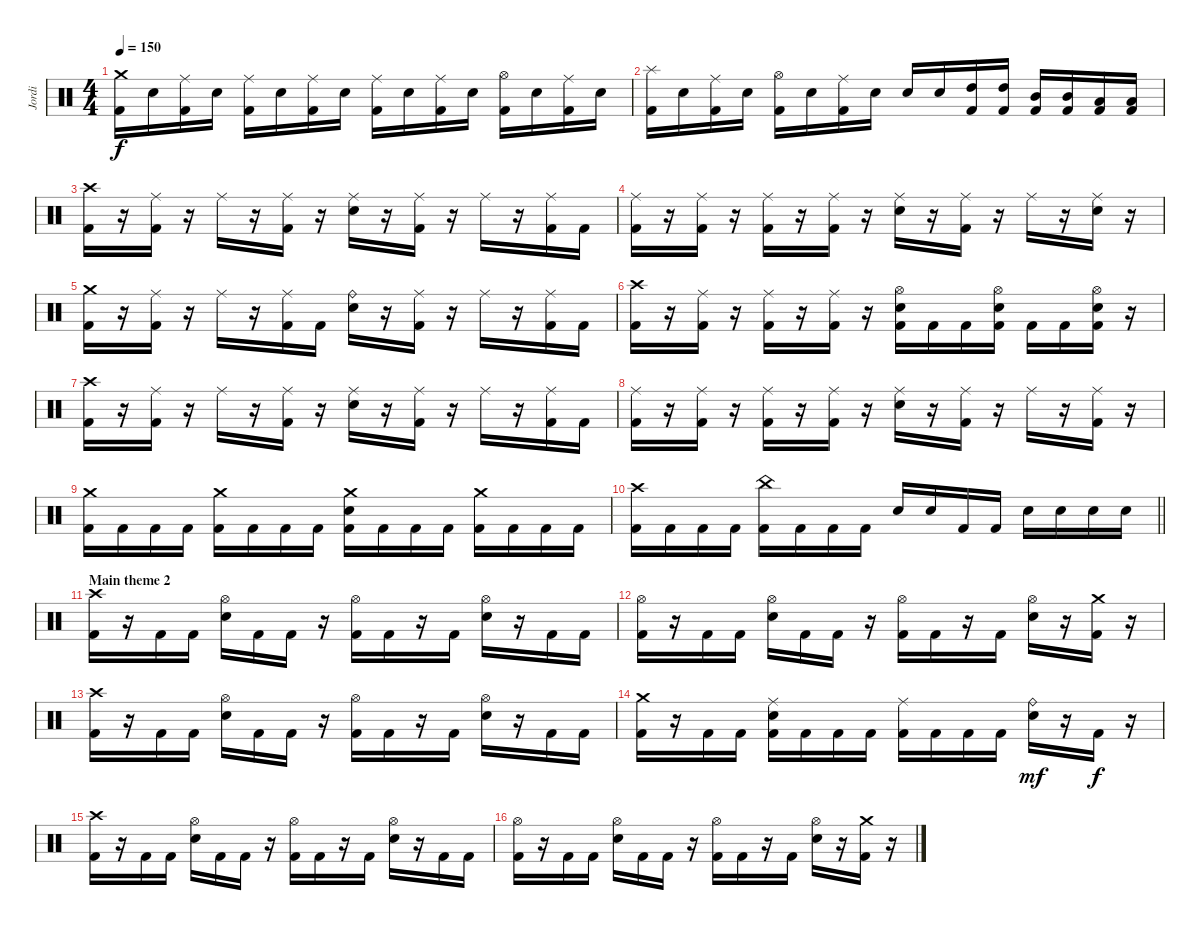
\track ("Jordi" "Jordi") {instrument percussion}
\staff {score}
\articulation defaults
\ts (4 4)
\tempo 150
\clef neutral
\ks c
("Crash medium (hit)" "Kick (hit) 2").16{dy f} "Snare (hit) 2".16 ("Ride (middle)" "Kick (hit) 2").16 "Snare (hit) 2".16 ("Ride (middle)" "Kick (hit) 2").16 "Snare (hit) 2".16 ("Ride (middle)" "Kick (hit) 2").16 "Snare (hit) 2".16 ("Ride (middle)" "Kick (hit) 2").16 "Snare (hit) 2".16 ("Ride (middle)" "Kick (hit) 2").16 "Snare (hit) 2".16 ("Hi-Hat (open)" "Kick (hit) 2").16 "Snare (hit) 2".16 ("Ride (middle)" "Kick (hit) 2").16 "Snare (hit) 2".16 |
("Splash (hit)" "Kick (hit) 2").16 "Snare (hit) 2".16 ("Ride (middle)" "Kick (hit) 2").16 "Snare (hit) 2".16 ("Hi-Hat (open)" "Kick (hit) 2").16 "Snare (hit) 2".16 ("Ride (middle)" "Kick (hit) 2").16 "Snare (hit) 2".16 "Snare (hit) 2".16 "Snare (hit) 2".16 ("High Tom (hit)" "Kick (hit) 2").16 ("High Tom (hit)" "Kick (hit) 2").16 ("Mid Tom (hit)" "Kick (hit) 2").16 ("Mid Tom (hit)" "Kick (hit) 2").16 ("Low Tom (hit)" "Kick (hit) 2").16 ("Low Tom (hit)" "Kick (hit) 2").16 |
("Crash high (hit)" "Kick (hit) 2").16 r.16 ("Ride (middle)" "Kick (hit) 2").16 r.16 "Ride (middle)".16 r.16 ("Ride (middle)" "Kick (hit) 2").16 r.16 ("Ride (middle)" "Snare (hit) 2").16 r.16 ("Ride (middle)" "Kick (hit) 2").16 r.16 "Ride (middle)".16 r.16 ("Ride (middle)" "Kick (hit) 2").16 "Kick (hit) 2".16 |
("Ride (middle)" "Kick (hit) 2").16 r.16 ("Ride (middle)" "Kick (hit) 2").16 r.16 ("Ride (middle)" "Kick (hit) 2").16 r.16 ("Ride (middle)" "Kick (hit) 2").16 r.16 ("Ride (middle)" "Snare (hit) 2").16 r.16 ("Ride (middle)" "Kick (hit) 2").16 r.16 "Ride (middle)".16 r.16 ("Ride (middle)" "Snare (hit) 2").16 r.16 |
("Crash medium (hit)" "Kick (hit) 2").16 r.16 ("Ride (middle)" "Kick (hit) 2").16 r.16 "Ride (middle)".16 r.16 ("Ride (middle)" "Kick (hit) 2").16 "Kick (hit) 2".16 ("Ride (bell)" "Snare (hit) 2").16 r.16 ("Ride (middle)" "Kick (hit) 2").16 r.16 "Ride (middle)".16 r.16 ("Ride (middle)" "Kick (hit) 2").16 "Kick (hit) 2".16 |
("Crash high (hit)" "Kick (hit) 2").16 r.16 ("Ride (middle)" "Kick (hit) 2").16 r.16 ("Ride (middle)" "Kick (hit) 2").16 r.16 ("Ride (middle)" "Kick (hit) 2").16 r.16 ("Hi-Hat (open)" "Snare (hit) 2" "Kick (hit) 2").16 "Kick (hit) 2".16 "Kick (hit) 2".16 ("Hi-Hat (open)" "Snare (hit) 2" "Kick (hit) 2").16 "Kick (hit) 2".16 "Kick (hit) 2".16 ("Hi-Hat (open)" "Snare (hit) 2" "Kick (hit) 2").16 r.16 |
("Crash high (hit)" "Kick (hit) 2").16 r.16 ("Ride (middle)" "Kick (hit) 2").16 r.16 "Ride (middle)".16 r.16 ("Ride (middle)" "Kick (hit) 2").16 r.16 ("Ride (middle)" "Snare (hit) 2").16 r.16 ("Ride (middle)" "Kick (hit) 2").16 r.16 "Ride (middle)".16 r.16 ("Ride (middle)" "Kick (hit) 2").16 "Kick (hit) 2".16 |
("Ride (middle)" "Kick (hit) 2").16 r.16 ("Ride (middle)" "Kick (hit) 2").16 r.16 ("Ride (middle)" "Kick (hit) 2").16 r.16 ("Ride (middle)" "Kick (hit) 2").16 r.16 ("Ride (middle)" "Snare (hit) 2").16 r.16 ("Ride (middle)" "Kick (hit) 2").16 r.16 "Ride (middle)".16 r.16 ("Ride (middle)" "Kick (hit) 2").16 r.16 |
("Crash medium (hit)" "Kick (hit) 2").16 "Kick (hit) 2".16 "Kick (hit) 2".16 "Kick (hit) 2".16 ("Crash medium (hit)" "Kick (hit) 2").16 "Kick (hit) 2".16 "Kick (hit) 2".16 "Kick (hit) 2".16 ("Crash medium (hit)" "Snare (hit) 2" "Kick (hit) 2").16 "Kick (hit) 2".16 "Kick (hit) 2".16 "Kick (hit) 2".16 ("Crash medium (hit)" "Kick (hit) 2").16 "Kick (hit) 2".16 "Kick (hit) 2".16 "Kick (hit) 2".16 |
\barLineRight lightlight
("Crash high (hit)" "Kick (hit) 2").16 "Kick (hit) 2".16 "Kick (hit) 2".16 "Kick (hit) 2".16 ("China (hit)" "Kick (hit) 2").16 "Kick (hit) 2".16 "Kick (hit) 2".16 "Kick (hit) 2".16 "Snare (hit) 2".16 "Snare (hit) 2".16 "Kick (hit) 2".16 "Kick (hit) 2".16 "Snare (hit) 2".16 "Snare (hit) 2".16 "Snare (hit) 2".16 "Snare (hit) 2".16 |
\section ("" "Main theme 2")
("Crash high (hit)" "Kick (hit) 2").16 r.16 "Kick (hit) 2".16 "Kick (hit) 2".16 ("Hi-Hat (open)" "Snare (hit) 2").16 "Kick (hit) 2".16 "Kick (hit) 2".16 r.16 ("Hi-Hat (open)" "Kick (hit) 2").16 "Kick (hit) 2".16 r.16 "Kick (hit) 2".16 ("Hi-Hat (open)" "Snare (hit) 2").16 r.16 "Kick (hit) 2".16 "Kick (hit) 2".16 |
("Hi-Hat (open)" "Kick (hit) 2").16 r.16 "Kick (hit) 2".16 "Kick (hit) 2".16 ("Hi-Hat (open)" "Snare (hit) 2").16 "Kick (hit) 2".16 "Kick (hit) 2".16 r.16 ("Hi-Hat (open)" "Kick (hit) 2").16 "Kick (hit) 2".16 r.16 "Kick (hit) 2".16 ("Hi-Hat (open)" "Snare (hit) 2").16 r.16 ("Crash medium (hit)" "Kick (hit) 2").16 r.16 |
("Crash high (hit)" "Kick (hit) 2").16 r.16 "Kick (hit) 2".16 "Kick (hit) 2".16 ("Hi-Hat (open)" "Snare (hit) 2").16 "Kick (hit) 2".16 "Kick (hit) 2".16 r.16 ("Hi-Hat (open)" "Kick (hit) 2").16 "Kick (hit) 2".16 r.16 "Kick (hit) 2".16 ("Hi-Hat (open)" "Snare (hit) 2").16 r.16 "Kick (hit) 2".16 "Kick (hit) 2".16 |
("Crash medium (hit)" "Kick (hit) 2").16 r.16 "Kick (hit) 2".16 "Kick (hit) 2".16 ("Ride (middle)" "Snare (hit) 2" "Kick (hit) 2").16 "Kick (hit) 2".16 "Kick (hit) 2".16 "Kick (hit) 2".16 ("Ride (middle)" "Kick (hit) 2").16 "Kick (hit) 2".16 "Kick (hit) 2".16 "Kick (hit) 2".16 ("Ride (bell)" "Snare (hit) 2").16{dy mf} r.16 "Kick (hit) 2".16{dy f} r.16 |
("Crash high (hit)" "Kick (hit) 2").16 r.16 "Kick (hit) 2".16 "Kick (hit) 2".16 ("Hi-Hat (open)" "Snare (hit) 2").16 "Kick (hit) 2".16 "Kick (hit) 2".16 r.16 ("Hi-Hat (open)" "Kick (hit) 2").16 "Kick (hit) 2".16 r.16 "Kick (hit) 2".16 ("Hi-Hat (open)" "Snare (hit) 2").16 r.16 "Kick (hit) 2".16 "Kick (hit) 2".16 |
("Hi-Hat (open)" "Kick (hit) 2").16 r.16 "Kick (hit) 2".16 "Kick (hit) 2".16 ("Hi-Hat (open)" "Snare (hit) 2").16 "Kick (hit) 2".16 "Kick (hit) 2".16 r.16 ("Hi-Hat (open)" "Kick (hit) 2").16 "Kick (hit) 2".16 r.16 "Kick (hit) 2".16 ("Hi-Hat (open)" "Snare (hit) 2").16 r.16 ("Crash medium (hit)" "Kick (hit) 2").16 r.16
